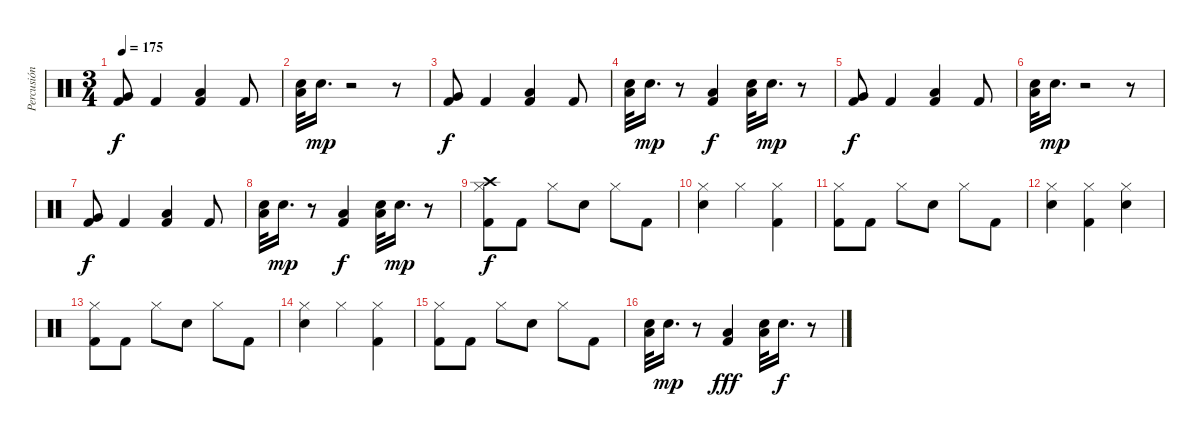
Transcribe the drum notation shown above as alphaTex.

\track ("Percusión" "Percusión") {instrument percussion}
\staff {score}
\articulation defaults
\ts (3 4)
\tempo 175
\clef neutral
\ks c
("Very Low Tom (hit)" "Kick (hit) 2").8{dy f} "Kick (hit) 2".4 ("Low Tom (hit)" "Kick (hit) 2").4 "Kick (hit) 2".8 |
("Low Floor Tom (hit)" "Snare (hit) 2").32 "Snare (hit) 2".16{d dy mp} r.2 r.8 |
("Very Low Tom (hit)" "Kick (hit) 2").8{dy f} "Kick (hit) 2".4 ("Low Tom (hit)" "Kick (hit) 2").4 "Kick (hit) 2".8 |
("Low Floor Tom (hit)" "Snare (hit) 2").32 "Snare (hit) 2".16{d dy mp} r.8 ("Low Tom (hit)" "Kick (hit) 2").4{dy f} ("Low Floor Tom (hit)" "Snare (hit) 2").32 "Snare (hit) 2".16{d dy mp} r.8 |
("Very Low Tom (hit)" "Kick (hit) 2").8{dy f} "Kick (hit) 2".4 ("Low Tom (hit)" "Kick (hit) 2").4 "Kick (hit) 2".8 |
("Low Floor Tom (hit)" "Snare (hit) 2").32 "Snare (hit) 2".16{d dy mp} r.2 r.8 |
("Very Low Tom (hit)" "Kick (hit) 2").8{dy f} "Kick (hit) 2".4 ("Low Tom (hit)" "Kick (hit) 2").4 "Kick (hit) 2".8 |
("Low Floor Tom (hit)" "Snare (hit) 2").32 "Snare (hit) 2".16{d dy mp} r.8 ("Low Tom (hit)" "Kick (hit) 2").4{dy f} ("Low Floor Tom (hit)" "Snare (hit) 2").32 "Snare (hit) 2".16{d dy mp} r.8 |
("Crash high (hit)" "Hi-Hat (closed)" "Kick (hit) 2").8{dy f} "Kick (hit) 2".8 "Hi-Hat (closed)".8 "Snare (hit) 2".8 "Hi-Hat (closed)".8 "Kick (hit) 2".8 |
("Hi-Hat (closed)" "Snare (hit) 2").4 "Hi-Hat (closed)".4 ("Hi-Hat (closed)" "Kick (hit) 2").4 |
("Hi-Hat (closed)" "Kick (hit) 2").8 "Kick (hit) 2".8 "Hi-Hat (closed)".8 "Snare (hit) 2".8 "Hi-Hat (closed)".8 "Kick (hit) 2".8 |
("Hi-Hat (closed)" "Snare (hit) 2").4 ("Hi-Hat (closed)" "Kick (hit) 2").4 ("Hi-Hat (closed)" "Snare (hit) 2").4 |
("Hi-Hat (closed)" "Kick (hit) 2").8 "Kick (hit) 2".8 "Hi-Hat (closed)".8 "Snare (hit) 2".8 "Hi-Hat (closed)".8 "Kick (hit) 2".8 |
("Hi-Hat (closed)" "Snare (hit) 2").4 "Hi-Hat (closed)".4 ("Hi-Hat (closed)" "Kick (hit) 2").4 |
("Hi-Hat (closed)" "Kick (hit) 2").8 "Kick (hit) 2".8 "Hi-Hat (closed)".8 "Snare (hit) 2".8 "Hi-Hat (closed)".8 "Kick (hit) 2".8 |
("Low Floor Tom (hit)" "Snare (hit) 2").32 "Snare (hit) 2".16{d dy mp} r.8 ("Low Tom (hit)" "Kick (hit) 2").4{dy fff} ("Low Floor Tom (hit)" "Snare (hit) 2").32 "Snare (hit) 2".16{d dy f} r.8
